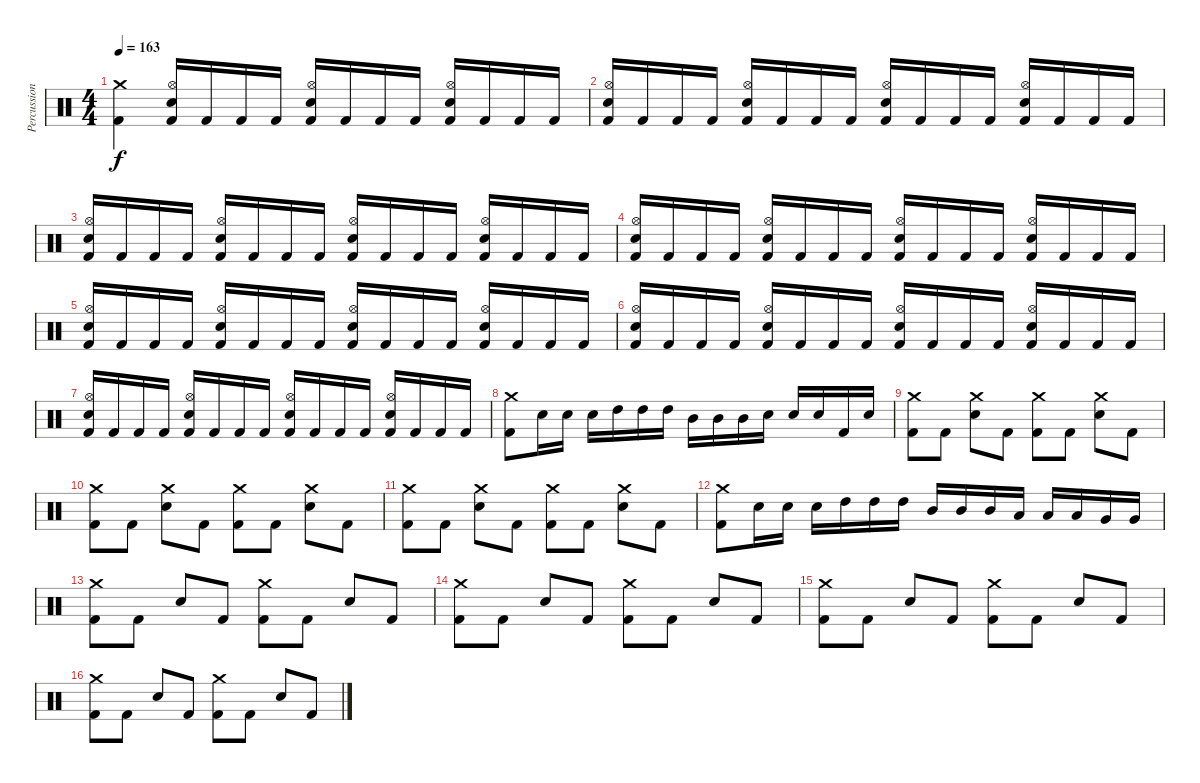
\track ("Percussion" "Percussion") {instrument percussion}
\staff {score}
\articulation defaults
\ts (4 4)
\tempo 163
\clef neutral
\ks c
("Crash medium (hit)" "Kick (hit) 2").4{dy f} ("Hi-Hat (open)" "Electric Snare (hit)" "Kick (hit) 2").16 "Kick (hit) 2".16 "Kick (hit) 2".16 "Kick (hit) 2".16 ("Hi-Hat (open)" "Electric Snare (hit)" "Kick (hit) 2").16 "Kick (hit) 2".16 "Kick (hit) 2".16 "Kick (hit) 2".16 ("Hi-Hat (open)" "Electric Snare (hit)" "Kick (hit) 2").16 "Kick (hit) 2".16 "Kick (hit) 2".16 "Kick (hit) 2".16 |
("Hi-Hat (open)" "Electric Snare (hit)" "Kick (hit) 2").16 "Kick (hit) 2".16 "Kick (hit) 2".16 "Kick (hit) 2".16 ("Hi-Hat (open)" "Electric Snare (hit)" "Kick (hit) 2").16 "Kick (hit) 2".16 "Kick (hit) 2".16 "Kick (hit) 2".16 ("Hi-Hat (open)" "Electric Snare (hit)" "Kick (hit) 2").16 "Kick (hit) 2".16 "Kick (hit) 2".16 "Kick (hit) 2".16 ("Hi-Hat (open)" "Electric Snare (hit)" "Kick (hit) 2").16 "Kick (hit) 2".16 "Kick (hit) 2".16 "Kick (hit) 2".16 |
("Hi-Hat (open)" "Electric Snare (hit)" "Kick (hit) 2").16 "Kick (hit) 2".16 "Kick (hit) 2".16 "Kick (hit) 2".16 ("Hi-Hat (open)" "Electric Snare (hit)" "Kick (hit) 2").16 "Kick (hit) 2".16 "Kick (hit) 2".16 "Kick (hit) 2".16 ("Hi-Hat (open)" "Electric Snare (hit)" "Kick (hit) 2").16 "Kick (hit) 2".16 "Kick (hit) 2".16 "Kick (hit) 2".16 ("Hi-Hat (open)" "Electric Snare (hit)" "Kick (hit) 2").16 "Kick (hit) 2".16 "Kick (hit) 2".16 "Kick (hit) 2".16 |
("Hi-Hat (open)" "Electric Snare (hit)" "Kick (hit) 2").16 "Kick (hit) 2".16 "Kick (hit) 2".16 "Kick (hit) 2".16 ("Hi-Hat (open)" "Electric Snare (hit)" "Kick (hit) 2").16 "Kick (hit) 2".16 "Kick (hit) 2".16 "Kick (hit) 2".16 ("Hi-Hat (open)" "Electric Snare (hit)" "Kick (hit) 2").16 "Kick (hit) 2".16 "Kick (hit) 2".16 "Kick (hit) 2".16 ("Hi-Hat (open)" "Electric Snare (hit)" "Kick (hit) 2").16 "Kick (hit) 2".16 "Kick (hit) 2".16 "Kick (hit) 2".16 |
("Hi-Hat (open)" "Electric Snare (hit)" "Kick (hit) 2").16 "Kick (hit) 2".16 "Kick (hit) 2".16 "Kick (hit) 2".16 ("Hi-Hat (open)" "Electric Snare (hit)" "Kick (hit) 2").16 "Kick (hit) 2".16 "Kick (hit) 2".16 "Kick (hit) 2".16 ("Hi-Hat (open)" "Electric Snare (hit)" "Kick (hit) 2").16 "Kick (hit) 2".16 "Kick (hit) 2".16 "Kick (hit) 2".16 ("Hi-Hat (open)" "Electric Snare (hit)" "Kick (hit) 2").16 "Kick (hit) 2".16 "Kick (hit) 2".16 "Kick (hit) 2".16 |
("Hi-Hat (open)" "Electric Snare (hit)" "Kick (hit) 2").16 "Kick (hit) 2".16 "Kick (hit) 2".16 "Kick (hit) 2".16 ("Hi-Hat (open)" "Electric Snare (hit)" "Kick (hit) 2").16 "Kick (hit) 2".16 "Kick (hit) 2".16 "Kick (hit) 2".16 ("Hi-Hat (open)" "Electric Snare (hit)" "Kick (hit) 2").16 "Kick (hit) 2".16 "Kick (hit) 2".16 "Kick (hit) 2".16 ("Hi-Hat (open)" "Electric Snare (hit)" "Kick (hit) 2").16 "Kick (hit) 2".16 "Kick (hit) 2".16 "Kick (hit) 2".16 |
("Hi-Hat (open)" "Electric Snare (hit)" "Kick (hit) 2").16 "Kick (hit) 2".16 "Kick (hit) 2".16 "Kick (hit) 2".16 ("Hi-Hat (open)" "Electric Snare (hit)" "Kick (hit) 2").16 "Kick (hit) 2".16 "Kick (hit) 2".16 "Kick (hit) 2".16 ("Hi-Hat (open)" "Electric Snare (hit)" "Kick (hit) 2").16 "Kick (hit) 2".16 "Kick (hit) 2".16 "Kick (hit) 2".16 ("Hi-Hat (open)" "Electric Snare (hit)" "Kick (hit) 2").16 "Kick (hit) 2".16 "Kick (hit) 2".16 "Kick (hit) 2".16 |
("Crash medium (hit)" "Kick (hit) 2").8 "Electric Snare (hit)".16 "Electric Snare (hit)".16 "Electric Snare (hit)".16 "High Tom (hit)".16 "High Tom (hit)".16 "High Tom (hit)".16 "Mid Tom (hit)".16 "Mid Tom (hit)".16 "Mid Tom (hit)".16 "Electric Snare (hit)".16 "Electric Snare (hit)".16 "Electric Snare (hit)".16 "Kick (hit) 2".16 "Electric Snare (hit)".16 |
("Crash medium (hit)" "Kick (hit) 2").8 "Kick (hit) 2".8 ("Crash medium (hit)" "Electric Snare (hit)").8 "Kick (hit) 2".8 ("Crash medium (hit)" "Kick (hit) 2").8 "Kick (hit) 2".8 ("Crash medium (hit)" "Electric Snare (hit)").8 "Kick (hit) 2".8 |
("Crash medium (hit)" "Kick (hit) 2").8 "Kick (hit) 2".8 ("Crash medium (hit)" "Electric Snare (hit)").8 "Kick (hit) 2".8 ("Crash medium (hit)" "Kick (hit) 2").8 "Kick (hit) 2".8 ("Crash medium (hit)" "Electric Snare (hit)").8 "Kick (hit) 2".8 |
("Crash medium (hit)" "Kick (hit) 2").8 "Kick (hit) 2".8 ("Crash medium (hit)" "Electric Snare (hit)").8 "Kick (hit) 2".8 ("Crash medium (hit)" "Kick (hit) 2").8 "Kick (hit) 2".8 ("Crash medium (hit)" "Electric Snare (hit)").8 "Kick (hit) 2".8 |
("Crash medium (hit)" "Kick (hit) 2").8 "Electric Snare (hit)".16 "Electric Snare (hit)".16 "Electric Snare (hit)".16 "High Tom (hit)".16 "High Tom (hit)".16 "High Tom (hit)".16 "Mid Tom (hit)".16 "Mid Tom (hit)".16 "Mid Tom (hit)".16 "Low Tom (hit)".16 "Low Tom (hit)".16 "Low Tom (hit)".16 "Very Low Tom (hit)".16 "Very Low Tom (hit)".16 |
("Crash medium (hit)" "Kick (hit) 2").8 "Kick (hit) 2".8 "Electric Snare (hit)".8 "Kick (hit) 2".8 ("Crash medium (hit)" "Kick (hit) 2").8 "Kick (hit) 2".8 "Electric Snare (hit)".8 "Kick (hit) 2".8 |
("Crash medium (hit)" "Kick (hit) 2").8 "Kick (hit) 2".8 "Electric Snare (hit)".8 "Kick (hit) 2".8 ("Crash medium (hit)" "Kick (hit) 2").8 "Kick (hit) 2".8 "Electric Snare (hit)".8 "Kick (hit) 2".8 |
("Crash medium (hit)" "Kick (hit) 2").8 "Kick (hit) 2".8 "Electric Snare (hit)".8 "Kick (hit) 2".8 ("Crash medium (hit)" "Kick (hit) 2").8 "Kick (hit) 2".8 "Electric Snare (hit)".8 "Kick (hit) 2".8 |
("Crash medium (hit)" "Kick (hit) 2").8 "Kick (hit) 2".8 "Electric Snare (hit)".8 "Kick (hit) 2".8 ("Crash medium (hit)" "Kick (hit) 2").8 "Kick (hit) 2".8 "Electric Snare (hit)".8 "Kick (hit) 2".8
